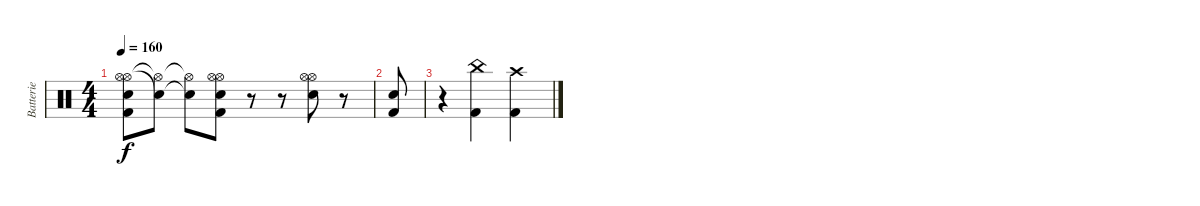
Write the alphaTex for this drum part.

\track ("Batterie" "Batterie") {instrument percussion}
\staff {score}
\articulation defaults
\ts (4 4)
\tempo 160
\clef neutral
\ks c
("Hi-Hat (open)" "Hi-Hat (open)" "Snare (hit) 2" "Kick (hit) 2").8{dy f} ("Hi-Hat (open)"{t} "Snare (hit)"{t}).8 ("Hi-Hat (open)"{t} "Snare (hit)"{t}).8 ("Hi-Hat (open)" "Hi-Hat (open)" "Snare (hit) 2" "Kick (hit) 2").8 r.8 r.8 ("Hi-Hat (open)" "Hi-Hat (open)" "Snare (hit) 2").8 r.8 |
("Snare (hit) 2" "Kick (hit) 2").8 |
r.4 ("China (hit)" "Kick (hit) 2").4 ("Crash high (hit)" "Kick (hit) 2").4
